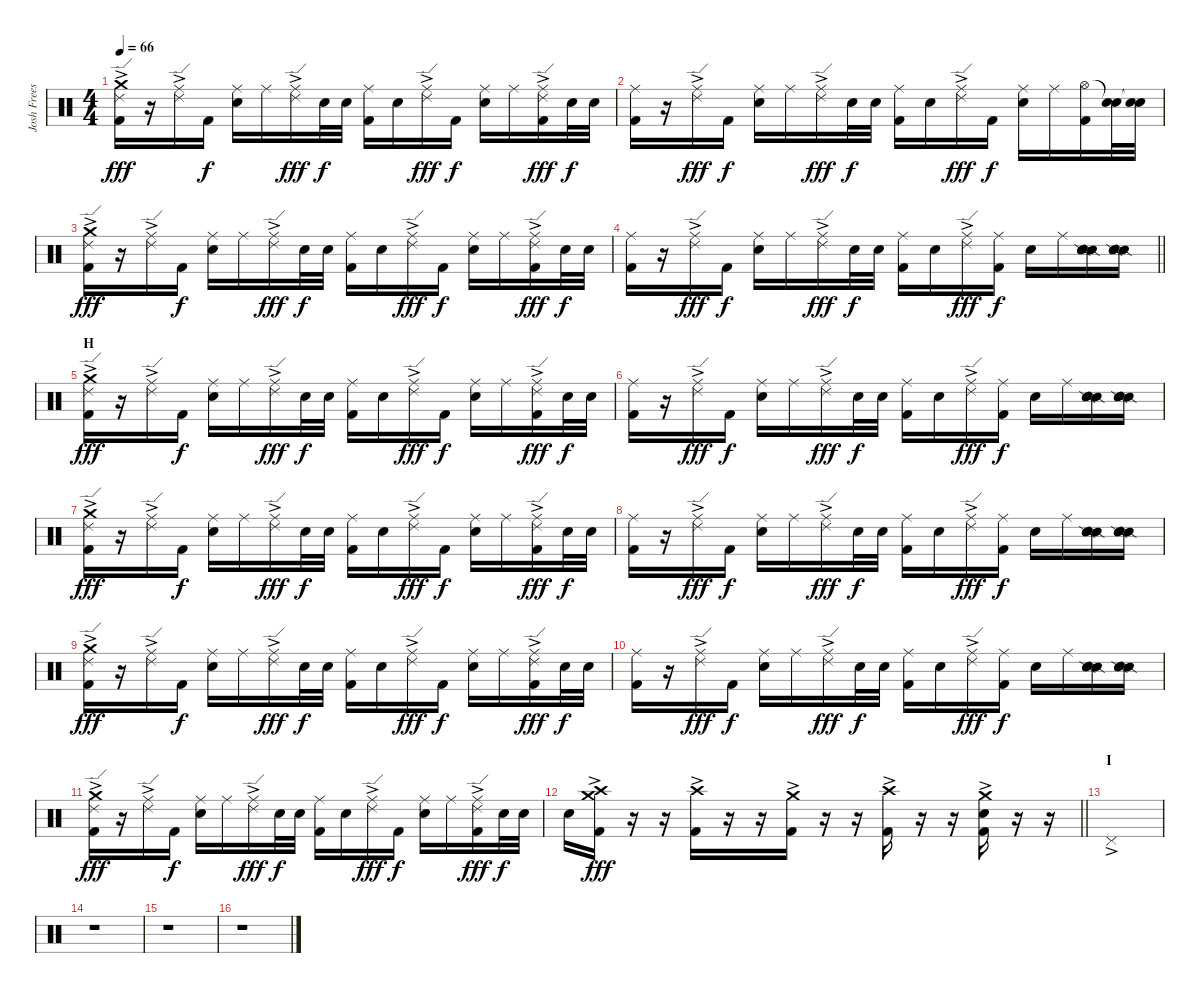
\track ("Josh Freese - Drums" "Josh Frees") {instrument percussion}
\staff {score}
\articulation defaults
\ts (4 4)
\tempo 66
\clef neutral
\ks c
("Crash medium (hit)"{ac} "Ride (edge) 2"{ac} "Kick (hit) 2").16{dy fff} r.16 ("Ride (edge) 2"{ac} "Ride (middle)").16 "Kick (hit) 2".16{dy f} ("Ride (middle)" "Electric Snare (hit)").16 "Ride (middle)".16 ("Ride (edge) 2"{ac} "Ride (middle)").16{dy fff} "Electric Snare (hit)".32{dy f} "Electric Snare (hit)".32 ("Ride (middle)" "Kick (hit) 2").16 "Electric Snare (hit)".16 ("Ride (edge) 2"{ac} "Ride (middle)").16{dy fff} "Kick (hit) 2".16{dy f} ("Ride (middle)" "Electric Snare (hit)").16 "Ride (middle)".16 ("Ride (edge) 2"{ac} "Ride (middle)" "Kick (hit) 2").16{dy fff} "Electric Snare (hit)".32{dy f} "Electric Snare (hit)".32 |
("Ride (middle)" "Kick (hit) 2").16 r.16 ("Ride (edge) 2"{ac} "Ride (middle)").16{dy fff} "Kick (hit) 2".16{dy f} ("Ride (middle)" "Electric Snare (hit)").16 "Ride (middle)".16 ("Ride (edge) 2"{ac} "Ride (middle)").16{dy fff} "Electric Snare (hit)".32{dy f} "Electric Snare (hit)".32 ("Ride (middle)" "Kick (hit) 2").16 "Electric Snare (hit)".16 ("Ride (edge) 2"{ac} "Ride (middle)").16{dy fff} "Kick (hit) 2".16{dy f} ("Ride (middle)" "Electric Snare (hit)").16 "Ride (middle)".16 ("Hi-Hat (open)" "Kick (hit) 2").16 ("Snare (hit)"{t} "Electric Snare (hit)").32 ("Snare (hit)"{t} "Electric Snare (hit)").32 |
("Crash medium (hit)"{ac} "Ride (edge) 2"{ac} "Kick (hit) 2").16{dy fff} r.16 ("Ride (edge) 2"{ac} "Ride (middle)").16 "Kick (hit) 2".16{dy f} ("Ride (middle)" "Electric Snare (hit)").16 "Ride (middle)".16 ("Ride (edge) 2"{ac} "Ride (middle)").16{dy fff} "Electric Snare (hit)".32{dy f} "Electric Snare (hit)".32 ("Ride (middle)" "Kick (hit) 2").16 "Electric Snare (hit)".16 ("Ride (edge) 2"{ac} "Ride (middle)").16{dy fff} "Kick (hit) 2".16{dy f} ("Ride (middle)" "Electric Snare (hit)").16 "Ride (middle)".16 ("Ride (edge) 2"{ac} "Ride (middle)" "Kick (hit) 2").16{dy fff} "Electric Snare (hit)".32{dy f} "Electric Snare (hit)".32 |
\barLineRight lightlight
("Ride (middle)" "Kick (hit) 2").16 r.16 ("Ride (edge) 2"{ac} "Ride (middle)").16{dy fff} "Kick (hit) 2".16{dy f} ("Ride (middle)" "Electric Snare (hit)").16 "Ride (middle)".16 ("Ride (edge) 2"{ac} "Ride (middle)").16{dy fff} "Electric Snare (hit)".32{dy f} "Electric Snare (hit)".32 ("Ride (middle)" "Kick (hit) 2").16 "Electric Snare (hit)".16 ("Ride (edge) 2"{ac} "Ride (middle)").16{dy fff} ("Ride (middle)" "Kick (hit) 2").16{dy f} "Electric Snare (hit)".16 "Ride (middle)".16 ("Snare (side stick) 2" "Electric Snare (hit)" "Snare (hit) 2" "Snare (side stick) 2").16 ("Snare (side stick) 2" "Electric Snare (hit)" "Snare (hit) 2" "Snare (side stick) 2").16 |
\section ("" "H")
("Crash medium (hit)"{ac} "Ride (edge) 2"{ac} "Kick (hit) 2").16{dy fff} r.16 ("Ride (edge) 2"{ac} "Ride (middle)").16 "Kick (hit) 2".16{dy f} ("Ride (middle)" "Electric Snare (hit)").16 "Ride (middle)".16 ("Ride (edge) 2"{ac} "Ride (middle)").16{dy fff} "Electric Snare (hit)".32{dy f} "Electric Snare (hit)".32 ("Ride (middle)" "Kick (hit) 2").16 "Electric Snare (hit)".16 ("Ride (edge) 2"{ac} "Ride (middle)").16{dy fff} "Kick (hit) 2".16{dy f} ("Ride (middle)" "Electric Snare (hit)").16 "Ride (middle)".16 ("Ride (edge) 2"{ac} "Ride (middle)" "Kick (hit) 2").16{dy fff} "Electric Snare (hit)".32{dy f} "Electric Snare (hit)".32 |
("Ride (middle)" "Kick (hit) 2").16 r.16 ("Ride (edge) 2"{ac} "Ride (middle)").16{dy fff} "Kick (hit) 2".16{dy f} ("Ride (middle)" "Electric Snare (hit)").16 "Ride (middle)".16 ("Ride (edge) 2"{ac} "Ride (middle)").16{dy fff} "Electric Snare (hit)".32{dy f} "Electric Snare (hit)".32 ("Ride (middle)" "Kick (hit) 2").16 "Electric Snare (hit)".16 ("Ride (edge) 2"{ac} "Ride (middle)").16{dy fff} ("Ride (middle)" "Kick (hit) 2").16{dy f} "Electric Snare (hit)".16 "Ride (middle)".16 ("Snare (side stick) 2" "Electric Snare (hit)" "Snare (hit) 2" "Snare (side stick) 2").16 ("Snare (side stick) 2" "Electric Snare (hit)" "Snare (hit) 2" "Snare (side stick) 2").16 |
("Crash medium (hit)"{ac} "Ride (edge) 2"{ac} "Kick (hit) 2").16{dy fff} r.16 ("Ride (edge) 2"{ac} "Ride (middle)").16 "Kick (hit) 2".16{dy f} ("Ride (middle)" "Electric Snare (hit)").16 "Ride (middle)".16 ("Ride (edge) 2"{ac} "Ride (middle)").16{dy fff} "Electric Snare (hit)".32{dy f} "Electric Snare (hit)".32 ("Ride (middle)" "Kick (hit) 2").16 "Electric Snare (hit)".16 ("Ride (edge) 2"{ac} "Ride (middle)").16{dy fff} "Kick (hit) 2".16{dy f} ("Ride (middle)" "Electric Snare (hit)").16 "Ride (middle)".16 ("Ride (edge) 2"{ac} "Ride (middle)" "Kick (hit) 2").16{dy fff} "Electric Snare (hit)".32{dy f} "Electric Snare (hit)".32 |
("Ride (middle)" "Kick (hit) 2").16 r.16 ("Ride (edge) 2"{ac} "Ride (middle)").16{dy fff} "Kick (hit) 2".16{dy f} ("Ride (middle)" "Electric Snare (hit)").16 "Ride (middle)".16 ("Ride (edge) 2"{ac} "Ride (middle)").16{dy fff} "Electric Snare (hit)".32{dy f} "Electric Snare (hit)".32 ("Ride (middle)" "Kick (hit) 2").16 "Electric Snare (hit)".16 ("Ride (edge) 2"{ac} "Ride (middle)").16{dy fff} ("Ride (middle)" "Kick (hit) 2").16{dy f} "Electric Snare (hit)".16 "Ride (middle)".16 ("Snare (side stick) 2" "Electric Snare (hit)" "Snare (hit) 2" "Snare (side stick) 2").16 ("Snare (side stick) 2" "Electric Snare (hit)" "Snare (hit) 2" "Snare (side stick) 2").16 |
("Crash medium (hit)"{ac} "Ride (edge) 2"{ac} "Kick (hit) 2").16{dy fff} r.16 ("Ride (edge) 2"{ac} "Ride (middle)").16 "Kick (hit) 2".16{dy f} ("Ride (middle)" "Electric Snare (hit)").16 "Ride (middle)".16 ("Ride (edge) 2"{ac} "Ride (middle)").16{dy fff} "Electric Snare (hit)".32{dy f} "Electric Snare (hit)".32 ("Ride (middle)" "Kick (hit) 2").16 "Electric Snare (hit)".16 ("Ride (edge) 2"{ac} "Ride (middle)").16{dy fff} "Kick (hit) 2".16{dy f} ("Ride (middle)" "Electric Snare (hit)").16 "Ride (middle)".16 ("Ride (edge) 2"{ac} "Ride (middle)" "Kick (hit) 2").16{dy fff} "Electric Snare (hit)".32{dy f} "Electric Snare (hit)".32 |
("Ride (middle)" "Kick (hit) 2").16 r.16 ("Ride (edge) 2"{ac} "Ride (middle)").16{dy fff} "Kick (hit) 2".16{dy f} ("Ride (middle)" "Electric Snare (hit)").16 "Ride (middle)".16 ("Ride (edge) 2"{ac} "Ride (middle)").16{dy fff} "Electric Snare (hit)".32{dy f} "Electric Snare (hit)".32 ("Ride (middle)" "Kick (hit) 2").16 "Electric Snare (hit)".16 ("Ride (edge) 2"{ac} "Ride (middle)").16{dy fff} ("Ride (middle)" "Kick (hit) 2").16{dy f} "Electric Snare (hit)".16 "Ride (middle)".16 ("Snare (side stick) 2" "Electric Snare (hit)" "Snare (hit) 2" "Snare (side stick) 2").16 ("Snare (side stick) 2" "Electric Snare (hit)" "Snare (hit) 2" "Snare (side stick) 2").16 |
("Crash medium (hit)"{ac} "Ride (edge) 2"{ac} "Kick (hit) 2").16{dy fff} r.16 ("Ride (edge) 2"{ac} "Ride (middle)").16 "Kick (hit) 2".16{dy f} ("Ride (middle)" "Electric Snare (hit)").16 "Ride (middle)".16 ("Ride (edge) 2"{ac} "Ride (middle)").16{dy fff} "Electric Snare (hit)".32{dy f} "Electric Snare (hit)".32 ("Ride (middle)" "Kick (hit) 2").16 "Electric Snare (hit)".16 ("Ride (edge) 2"{ac} "Ride (middle)").16{dy fff} "Kick (hit) 2".16{dy f} ("Ride (middle)" "Electric Snare (hit)").16 "Ride (middle)".16 ("Ride (edge) 2"{ac} "Ride (middle)" "Kick (hit) 2").16{dy fff} "Electric Snare (hit)".32{dy f} "Electric Snare (hit)".32 |
\barLineRight lightlight "Electric Snare (hit)".16
("Crash medium (hit)"{ac} "Crash high (hit)"{ac} "Kick (hit) 2"{ac}).16{dy fff} r.16 r.16 ("Crash high (hit)"{ac} "Kick (hit) 2"{ac}).16 r.16 r.16 ("Crash medium (hit)"{ac} "Kick (hit) 2"{ac}).16 r.16 r.16 ("Crash high (hit)"{ac} "Kick (hit) 2"{ac}).16 r.16 r.16 ("Crash medium (hit)"{ac} "Electric Snare (hit)"{ac} "Kick (hit) 2"{ac}).16 r.16 r.16 |
\section ("" "I")
"Pedal Hi-Hat (hit)"{ac}.1 |
r.1 |
r.1 |
r.1
